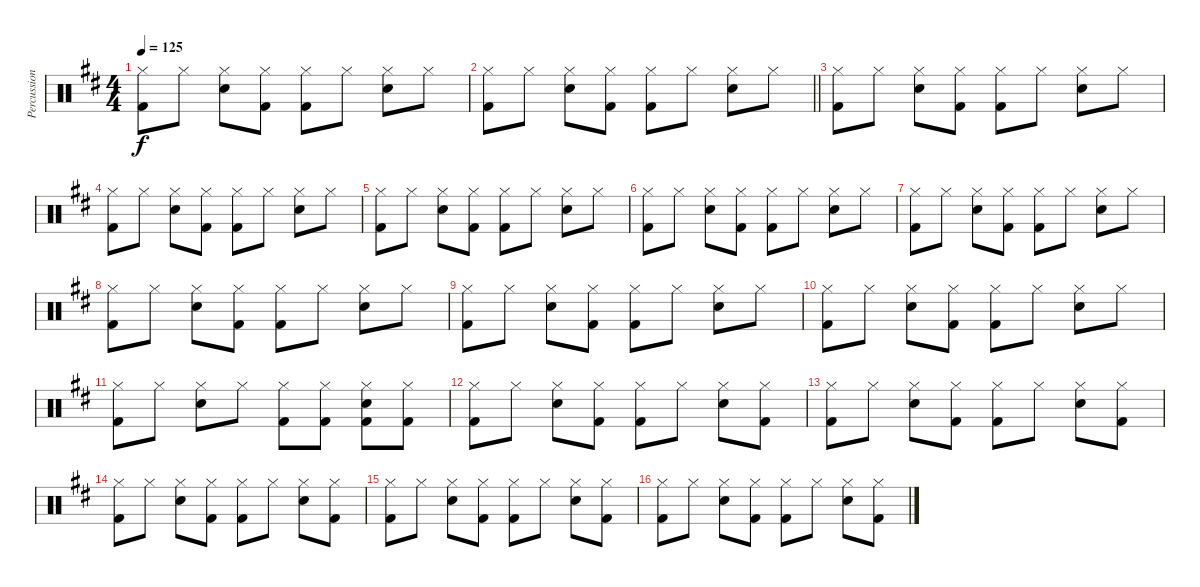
\track ("Percussion" "Percussion") {instrument percussion}
\staff {score}
\articulation defaults
\ts (4 4)
\tempo 125
\clef neutral
\ks d
("Hi-Hat (closed)" "Kick (hit) 2").8{dy f} "Hi-Hat (closed)".8 ("Hi-Hat (closed)" "Snare (hit) 2").8 ("Hi-Hat (closed)" "Kick (hit) 2").8 ("Hi-Hat (closed)" "Kick (hit) 2").8 "Hi-Hat (closed)".8 ("Hi-Hat (closed)" "Snare (hit) 2").8 "Hi-Hat (closed)".8 |
\barLineRight lightlight
("Hi-Hat (closed)" "Kick (hit) 2").8 "Hi-Hat (closed)".8 ("Hi-Hat (closed)" "Snare (hit) 2").8 ("Hi-Hat (closed)" "Kick (hit) 2").8 ("Hi-Hat (closed)" "Kick (hit) 2").8 "Hi-Hat (closed)".8 ("Hi-Hat (closed)" "Snare (hit) 2").8 "Hi-Hat (closed)".8 |
("Hi-Hat (closed)" "Kick (hit) 2").8 "Hi-Hat (closed)".8 ("Hi-Hat (closed)" "Snare (hit) 2").8 ("Hi-Hat (closed)" "Kick (hit) 2").8 ("Hi-Hat (closed)" "Kick (hit) 2").8 "Hi-Hat (closed)".8 ("Hi-Hat (closed)" "Snare (hit) 2").8 "Hi-Hat (closed)".8 |
("Hi-Hat (closed)" "Kick (hit) 2").8 "Hi-Hat (closed)".8 ("Hi-Hat (closed)" "Snare (hit) 2").8 ("Hi-Hat (closed)" "Kick (hit) 2").8 ("Hi-Hat (closed)" "Kick (hit) 2").8 "Hi-Hat (closed)".8 ("Hi-Hat (closed)" "Snare (hit) 2").8 "Hi-Hat (closed)".8 |
("Hi-Hat (closed)" "Kick (hit) 2").8 "Hi-Hat (closed)".8 ("Hi-Hat (closed)" "Snare (hit) 2").8 ("Hi-Hat (closed)" "Kick (hit) 2").8 ("Hi-Hat (closed)" "Kick (hit) 2").8 "Hi-Hat (closed)".8 ("Hi-Hat (closed)" "Snare (hit) 2").8 "Hi-Hat (closed)".8 |
("Hi-Hat (closed)" "Kick (hit) 2").8 "Hi-Hat (closed)".8 ("Hi-Hat (closed)" "Snare (hit) 2").8 ("Hi-Hat (closed)" "Kick (hit) 2").8 ("Hi-Hat (closed)" "Kick (hit) 2").8 "Hi-Hat (closed)".8 ("Hi-Hat (closed)" "Snare (hit) 2").8 "Hi-Hat (closed)".8 |
("Hi-Hat (closed)" "Kick (hit) 2").8 "Hi-Hat (closed)".8 ("Hi-Hat (closed)" "Snare (hit) 2").8 ("Hi-Hat (closed)" "Kick (hit) 2").8 ("Hi-Hat (closed)" "Kick (hit) 2").8 "Hi-Hat (closed)".8 ("Hi-Hat (closed)" "Snare (hit) 2").8 "Hi-Hat (closed)".8 |
("Hi-Hat (closed)" "Kick (hit) 2").8 "Hi-Hat (closed)".8 ("Hi-Hat (closed)" "Snare (hit) 2").8 ("Hi-Hat (closed)" "Kick (hit) 2").8 ("Hi-Hat (closed)" "Kick (hit) 2").8 "Hi-Hat (closed)".8 ("Hi-Hat (closed)" "Snare (hit) 2").8 "Hi-Hat (closed)".8 |
("Hi-Hat (closed)" "Kick (hit) 2").8 "Hi-Hat (closed)".8 ("Hi-Hat (closed)" "Snare (hit) 2").8 ("Hi-Hat (closed)" "Kick (hit) 2").8 ("Hi-Hat (closed)" "Kick (hit) 2").8 "Hi-Hat (closed)".8 ("Hi-Hat (closed)" "Snare (hit) 2").8 "Hi-Hat (closed)".8 |
("Hi-Hat (closed)" "Kick (hit) 2").8 "Hi-Hat (closed)".8 ("Hi-Hat (closed)" "Snare (hit) 2").8 ("Hi-Hat (closed)" "Kick (hit) 2").8 ("Hi-Hat (closed)" "Kick (hit) 2").8 "Hi-Hat (closed)".8 ("Hi-Hat (closed)" "Snare (hit) 2").8 "Hi-Hat (closed)".8 |
("Hi-Hat (closed)" "Kick (hit) 2").8 "Hi-Hat (closed)".8 ("Hi-Hat (closed)" "Snare (hit) 2").8 "Hi-Hat (closed)".8 ("Hi-Hat (closed)" "Kick (hit) 2").8 ("Hi-Hat (closed)" "Kick (hit) 2").8 ("Hi-Hat (closed)" "Kick (hit) 2" "Snare (hit) 2").8 ("Hi-Hat (closed)" "Kick (hit) 2").8 |
("Hi-Hat (closed)" "Kick (hit) 2").8 "Hi-Hat (closed)".8 ("Hi-Hat (closed)" "Snare (hit) 2").8 ("Hi-Hat (closed)" "Kick (hit) 2").8 ("Hi-Hat (closed)" "Kick (hit) 2").8 "Hi-Hat (closed)".8 ("Hi-Hat (closed)" "Snare (hit) 2").8 ("Hi-Hat (closed)" "Kick (hit) 2").8 |
("Hi-Hat (closed)" "Kick (hit) 2").8 "Hi-Hat (closed)".8 ("Hi-Hat (closed)" "Snare (hit) 2").8 ("Hi-Hat (closed)" "Kick (hit) 2").8 ("Hi-Hat (closed)" "Kick (hit) 2").8 "Hi-Hat (closed)".8 ("Hi-Hat (closed)" "Snare (hit) 2").8 ("Hi-Hat (closed)" "Kick (hit) 2").8 |
("Hi-Hat (closed)" "Kick (hit) 2").8 "Hi-Hat (closed)".8 ("Hi-Hat (closed)" "Snare (hit) 2").8 ("Hi-Hat (closed)" "Kick (hit) 2").8 ("Hi-Hat (closed)" "Kick (hit) 2").8 "Hi-Hat (closed)".8 ("Hi-Hat (closed)" "Snare (hit) 2").8 ("Hi-Hat (closed)" "Kick (hit) 2").8 |
("Hi-Hat (closed)" "Kick (hit) 2").8 "Hi-Hat (closed)".8 ("Hi-Hat (closed)" "Snare (hit) 2").8 ("Hi-Hat (closed)" "Kick (hit) 2").8 ("Hi-Hat (closed)" "Kick (hit) 2").8 "Hi-Hat (closed)".8 ("Hi-Hat (closed)" "Snare (hit) 2").8 ("Hi-Hat (closed)" "Kick (hit) 2").8 |
("Hi-Hat (closed)" "Kick (hit) 2").8 "Hi-Hat (closed)".8 ("Hi-Hat (closed)" "Snare (hit) 2").8 ("Hi-Hat (closed)" "Kick (hit) 2").8 ("Hi-Hat (closed)" "Kick (hit) 2").8 "Hi-Hat (closed)".8 ("Hi-Hat (closed)" "Snare (hit) 2").8 ("Hi-Hat (closed)" "Kick (hit) 2").8
